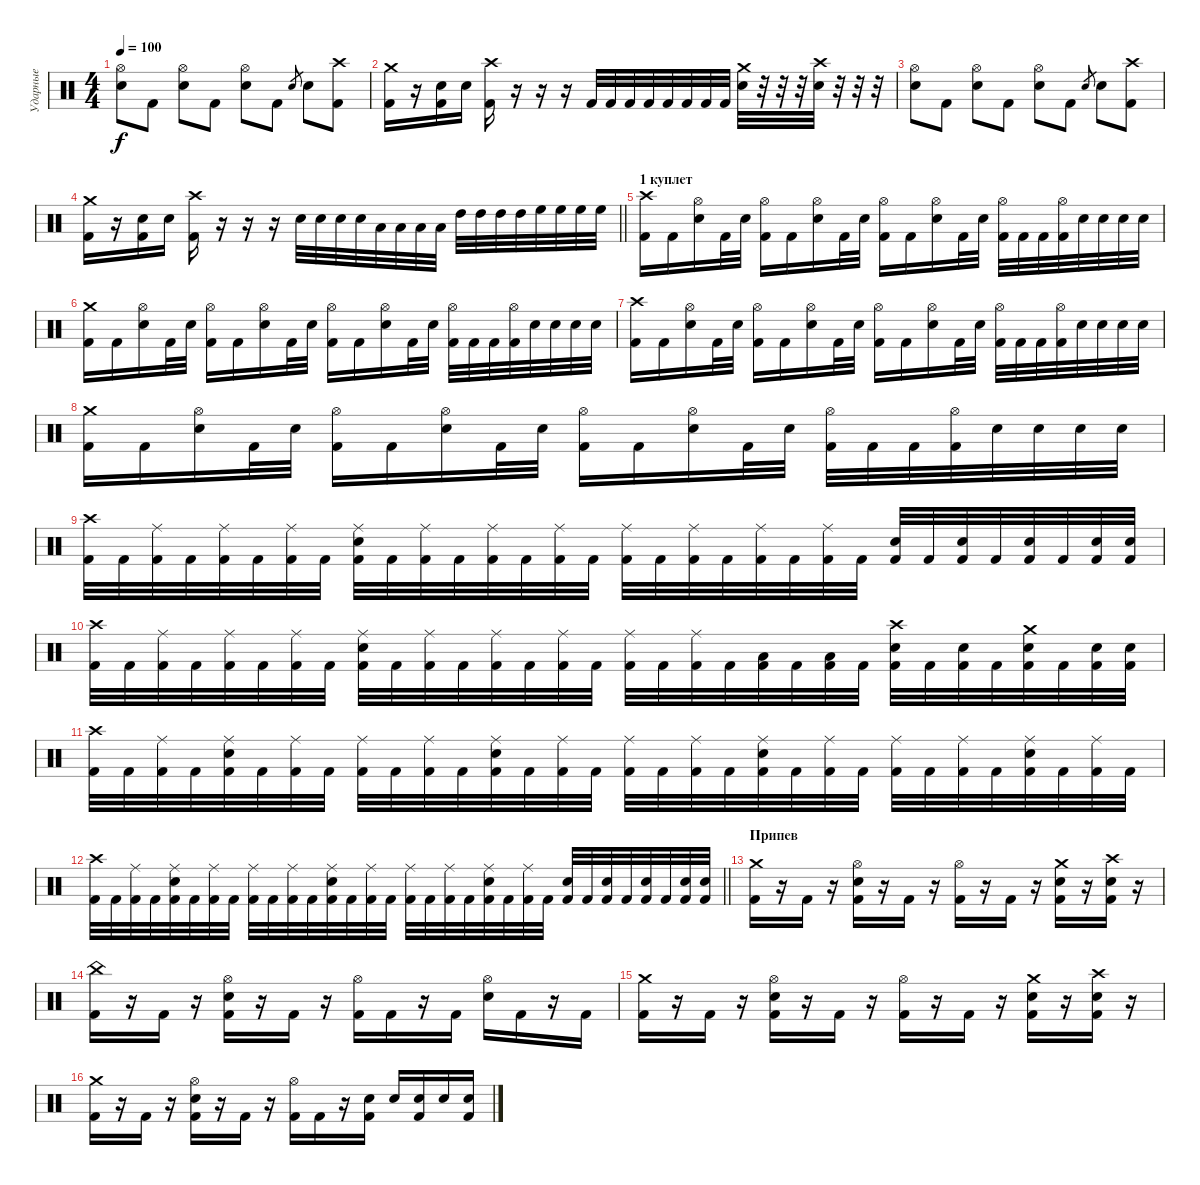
\track ("Ударные" "Ударные") {instrument percussion}
\staff {score}
\articulation defaults
\ts (4 4)
\tempo 100
\clef neutral
\ks c
("Hi-Hat (open)" "Snare (hit) 2").8{dy f} "Kick (hit) 2".8 ("Hi-Hat (open)" "Snare (hit) 2").8 "Kick (hit) 2".8 ("Hi-Hat (open)" "Snare (hit) 2").8 "Kick (hit) 2".8 "Snare (hit) 2".8{gr} "Snare (hit) 2".8 ("Crash high (hit)" "Kick (hit) 2").8 |
("Crash medium (hit)" "Kick (hit) 2").16 r.16 ("Snare (hit) 2" "Kick (hit) 2").16 "Snare (hit) 2".16 ("Crash high (hit)" "Kick (hit) 2").16 r.16 r.16 r.16 "Kick (hit) 2".32 "Kick (hit) 2".32 "Kick (hit) 2".32 "Kick (hit) 2".32 "Kick (hit) 2".32 "Kick (hit) 2".32 "Kick (hit) 2".32 "Kick (hit) 2".32 ("Crash medium (hit)" "Snare (hit) 2").32 r.32 r.32 r.32 ("Snare (hit) 2" "Crash high (hit)").32 r.32 r.32 r.32 |
("Hi-Hat (open)" "Snare (hit) 2").8 "Kick (hit) 2".8 ("Hi-Hat (open)" "Snare (hit) 2").8 "Kick (hit) 2".8 ("Hi-Hat (open)" "Snare (hit) 2").8 "Kick (hit) 2".8 "Snare (hit) 2".8{gr} "Snare (hit) 2".8 ("Crash high (hit)" "Kick (hit) 2").8 |
\barLineRight lightlight
("Crash medium (hit)" "Kick (hit) 2").16 r.16 ("Snare (hit) 2" "Kick (hit) 2").16 "Snare (hit) 2".16 ("Crash high (hit)" "Kick (hit) 2").16 r.16 r.16 r.16 "Snare (hit) 2".32 "Snare (hit) 2".32 "Snare (hit) 2".32 "Snare (hit) 2".32 "Low Tom (hit)".32 "Low Tom (hit)".32 "Low Tom (hit)".32 "Low Tom (hit)".32 "High Tom (hit)".32 "High Tom (hit)".32 "High Tom (hit)".32 "High Tom (hit)".32 "High Floor Tom (hit)".32 "High Floor Tom (hit)".32 "High Floor Tom (hit)".32 "High Floor Tom (hit)".32 |
\section ("" "1 куплет")
("Crash high (hit)" "Kick (hit) 2").16 "Kick (hit) 2".16 ("Hi-Hat (open)" "Snare (hit) 2").16 "Kick (hit) 2".32 "Snare (hit) 2".32 ("Hi-Hat (open)" "Kick (hit) 2").16 "Kick (hit) 2".16 ("Hi-Hat (open)" "Snare (hit) 2").16 "Kick (hit) 2".32 "Snare (hit) 2".32 ("Hi-Hat (open)" "Kick (hit) 2").16 "Kick (hit) 2".16 ("Hi-Hat (open)" "Snare (hit) 2").16 "Kick (hit) 2".32 "Snare (hit) 2".32 ("Hi-Hat (open)" "Kick (hit) 2").32 "Kick (hit) 2".32 "Kick (hit) 2".32 ("Hi-Hat (open)" "Kick (hit) 2").32 "Snare (hit) 2".32 "Snare (hit) 2".32 "Snare (hit) 2".32 "Snare (hit) 2".32 |
("Crash medium (hit)" "Kick (hit) 2").16 "Kick (hit) 2".16 ("Hi-Hat (open)" "Snare (hit) 2").16 "Kick (hit) 2".32 "Snare (hit) 2".32 ("Hi-Hat (open)" "Kick (hit) 2").16 "Kick (hit) 2".16 ("Hi-Hat (open)" "Snare (hit) 2").16 "Kick (hit) 2".32 "Snare (hit) 2".32 ("Hi-Hat (open)" "Kick (hit) 2").16 "Kick (hit) 2".16 ("Hi-Hat (open)" "Snare (hit) 2").16 "Kick (hit) 2".32 "Snare (hit) 2".32 ("Hi-Hat (open)" "Kick (hit) 2").32 "Kick (hit) 2".32 "Kick (hit) 2".32 ("Hi-Hat (open)" "Kick (hit) 2").32 "Snare (hit) 2".32 "Snare (hit) 2".32 "Snare (hit) 2".32 "Snare (hit) 2".32 |
("Crash high (hit)" "Kick (hit) 2").16 "Kick (hit) 2".16 ("Hi-Hat (open)" "Snare (hit) 2").16 "Kick (hit) 2".32 "Snare (hit) 2".32 ("Hi-Hat (open)" "Kick (hit) 2").16 "Kick (hit) 2".16 ("Hi-Hat (open)" "Snare (hit) 2").16 "Kick (hit) 2".32 "Snare (hit) 2".32 ("Hi-Hat (open)" "Kick (hit) 2").16 "Kick (hit) 2".16 ("Hi-Hat (open)" "Snare (hit) 2").16 "Kick (hit) 2".32 "Snare (hit) 2".32 ("Hi-Hat (open)" "Kick (hit) 2").32 "Kick (hit) 2".32 "Kick (hit) 2".32 ("Hi-Hat (open)" "Kick (hit) 2").32 "Snare (hit) 2".32 "Snare (hit) 2".32 "Snare (hit) 2".32 "Snare (hit) 2".32 |
("Crash medium (hit)" "Kick (hit) 2").16 "Kick (hit) 2".16 ("Hi-Hat (open)" "Snare (hit) 2").16 "Kick (hit) 2".32 "Snare (hit) 2".32 ("Hi-Hat (open)" "Kick (hit) 2").16 "Kick (hit) 2".16 ("Hi-Hat (open)" "Snare (hit) 2").16 "Kick (hit) 2".32 "Snare (hit) 2".32 ("Hi-Hat (open)" "Kick (hit) 2").16 "Kick (hit) 2".16 ("Hi-Hat (open)" "Snare (hit) 2").16 "Kick (hit) 2".32 "Snare (hit) 2".32 ("Hi-Hat (open)" "Kick (hit) 2").32 "Kick (hit) 2".32 "Kick (hit) 2".32 ("Hi-Hat (open)" "Kick (hit) 2").32 "Snare (hit) 2".32 "Snare (hit) 2".32 "Snare (hit) 2".32 "Snare (hit) 2".32 |
("Crash high (hit)" "Kick (hit) 2").32 "Kick (hit) 2".32 ("Ride (middle)" "Kick (hit) 2").32 "Kick (hit) 2".32 ("Ride (middle)" "Kick (hit) 2").32 "Kick (hit) 2".32 ("Ride (middle)" "Kick (hit) 2").32 "Kick (hit) 2".32 ("Ride (middle)" "Snare (hit) 2" "Kick (hit) 2").32 "Kick (hit) 2".32 ("Ride (middle)" "Kick (hit) 2").32 "Kick (hit) 2".32 ("Ride (middle)" "Kick (hit) 2").32 "Kick (hit) 2".32 ("Ride (middle)" "Kick (hit) 2").32 "Kick (hit) 2".32 ("Ride (middle)" "Kick (hit) 2").32 "Kick (hit) 2".32 ("Ride (middle)" "Kick (hit) 2").32 "Kick (hit) 2".32 ("Ride (middle)" "Kick (hit) 2").32 "Kick (hit) 2".32 ("Ride (middle)" "Kick (hit) 2").32 "Kick (hit) 2".32 ("Snare (hit) 2" "Kick (hit) 2").32 "Kick (hit) 2".32 ("Snare (hit) 2" "Kick (hit) 2").32 "Kick (hit) 2".32 ("Snare (hit) 2" "Kick (hit) 2").32 "Kick (hit) 2".32 ("Snare (hit) 2" "Kick (hit) 2").32 ("Snare (hit) 2" "Kick (hit) 2").32 |
("Crash high (hit)" "Kick (hit) 2").32 "Kick (hit) 2".32 ("Ride (middle)" "Kick (hit) 2").32 "Kick (hit) 2".32 ("Ride (middle)" "Kick (hit) 2").32 "Kick (hit) 2".32 ("Ride (middle)" "Kick (hit) 2").32 "Kick (hit) 2".32 ("Ride (middle)" "Snare (hit) 2" "Kick (hit) 2").32 "Kick (hit) 2".32 ("Ride (middle)" "Kick (hit) 2").32 "Kick (hit) 2".32 ("Ride (middle)" "Kick (hit) 2").32 "Kick (hit) 2".32 ("Ride (middle)" "Kick (hit) 2").32 "Kick (hit) 2".32 ("Ride (middle)" "Kick (hit) 2").32 "Kick (hit) 2".32 ("Ride (middle)" "Kick (hit) 2").32 "Kick (hit) 2".32 ("Low Tom (hit)" "Kick (hit) 2").32 "Kick (hit) 2".32 ("Low Tom (hit)" "Kick (hit) 2").32 "Kick (hit) 2".32 ("Crash high (hit)" "Snare (hit) 2" "Kick (hit) 2").32 "Kick (hit) 2".32 ("Snare (hit) 2" "Kick (hit) 2").32 "Kick (hit) 2".32 ("Crash medium (hit)" "Snare (hit) 2" "Kick (hit) 2").32 "Kick (hit) 2".32 ("Snare (hit) 2" "Kick (hit) 2").32 ("Snare (hit) 2" "Kick (hit) 2").32 |
("Crash high (hit)" "Kick (hit) 2").32 "Kick (hit) 2".32 ("Ride (middle)" "Kick (hit) 2").32 "Kick (hit) 2".32 ("Ride (middle)" "Snare (hit) 2" "Kick (hit) 2").32 "Kick (hit) 2".32 ("Ride (middle)" "Kick (hit) 2").32 "Kick (hit) 2".32 ("Ride (middle)" "Kick (hit) 2").32 "Kick (hit) 2".32 ("Ride (middle)" "Kick (hit) 2").32 "Kick (hit) 2".32 ("Ride (middle)" "Snare (hit) 2" "Kick (hit) 2").32 "Kick (hit) 2".32 ("Ride (middle)" "Kick (hit) 2").32 "Kick (hit) 2".32 ("Ride (middle)" "Kick (hit) 2").32 "Kick (hit) 2".32 ("Ride (middle)" "Kick (hit) 2").32 "Kick (hit) 2".32 ("Ride (middle)" "Snare (hit) 2" "Kick (hit) 2").32 "Kick (hit) 2".32 ("Ride (middle)" "Kick (hit) 2").32 "Kick (hit) 2".32 ("Ride (middle)" "Kick (hit) 2").32 "Kick (hit) 2".32 ("Ride (middle)" "Kick (hit) 2").32 "Kick (hit) 2".32 ("Ride (middle)" "Snare (hit) 2" "Kick (hit) 2").32 "Kick (hit) 2".32 ("Ride (middle)" "Kick (hit) 2").32 "Kick (hit) 2".32 |
\barLineRight lightlight
("Crash high (hit)" "Kick (hit) 2").32 "Kick (hit) 2".32 ("Ride (middle)" "Kick (hit) 2").32 "Kick (hit) 2".32 ("Ride (middle)" "Snare (hit) 2" "Kick (hit) 2").32 "Kick (hit) 2".32 ("Ride (middle)" "Kick (hit) 2").32 "Kick (hit) 2".32 ("Ride (middle)" "Kick (hit) 2").32 "Kick (hit) 2".32 ("Ride (middle)" "Kick (hit) 2").32 "Kick (hit) 2".32 ("Ride (middle)" "Snare (hit) 2" "Kick (hit) 2").32 "Kick (hit) 2".32 ("Ride (middle)" "Kick (hit) 2").32 "Kick (hit) 2".32 ("Ride (middle)" "Kick (hit) 2").32 "Kick (hit) 2".32 ("Ride (middle)" "Kick (hit) 2").32 "Kick (hit) 2".32 ("Ride (middle)" "Snare (hit) 2" "Kick (hit) 2").32 "Kick (hit) 2".32 ("Ride (middle)" "Kick (hit) 2").32 "Kick (hit) 2".32 ("Snare (hit) 2" "Kick (hit) 2").32 "Kick (hit) 2".32 ("Snare (hit) 2" "Kick (hit) 2").32 "Kick (hit) 2".32 ("Snare (hit) 2" "Kick (hit) 2").32 "Kick (hit) 2".32 ("Snare (hit) 2" "Kick (hit) 2").32 ("Snare (hit) 2" "Kick (hit) 2").32 |
\section ("" "Припев")
("Crash medium (hit)" "Kick (hit) 2").16 r.16 "Kick (hit) 2".16 r.16 ("Hi-Hat (open)" "Snare (hit) 2" "Kick (hit) 2").16 r.16 "Kick (hit) 2".16 r.16 ("Hi-Hat (open)" "Kick (hit) 2").16 r.16 "Kick (hit) 2".16 r.16 ("Crash medium (hit)" "Snare (hit) 2" "Kick (hit) 2").16 r.16 ("Crash high (hit)" "Snare (hit) 2" "Kick (hit) 2").16 r.16 |
("China (hit)" "Kick (hit) 2").16 r.16 "Kick (hit) 2".16 r.16 ("Hi-Hat (open)" "Snare (hit) 2" "Kick (hit) 2").16 r.16 "Kick (hit) 2".16 r.16 ("Hi-Hat (open)" "Kick (hit) 2").16 "Kick (hit) 2".16 r.16 "Kick (hit) 2".16 ("Hi-Hat (open)" "Snare (hit) 2").16 "Kick (hit) 2".16 r.16 "Kick (hit) 2".16 |
("Crash medium (hit)" "Kick (hit) 2").16 r.16 "Kick (hit) 2".16 r.16 ("Hi-Hat (open)" "Snare (hit) 2" "Kick (hit) 2").16 r.16 "Kick (hit) 2".16 r.16 ("Hi-Hat (open)" "Kick (hit) 2").16 r.16 "Kick (hit) 2".16 r.16 ("Crash medium (hit)" "Snare (hit) 2" "Kick (hit) 2").16 r.16 ("Crash high (hit)" "Snare (hit) 2" "Kick (hit) 2").16 r.16 |
("Crash medium (hit)" "Kick (hit) 2").16 r.16 "Kick (hit) 2".16 r.16 ("Hi-Hat (open)" "Snare (hit) 2" "Kick (hit) 2").16 r.16 "Kick (hit) 2".16 r.16 ("Hi-Hat (open)" "Kick (hit) 2").16 "Kick (hit) 2".16 r.16 ("Snare (hit) 2" "Kick (hit) 2").16 "Snare (hit) 2".16 ("Snare (hit) 2" "Kick (hit) 2").16 "Snare (hit) 2".16 ("Snare (hit) 2" "Kick (hit) 2").16
